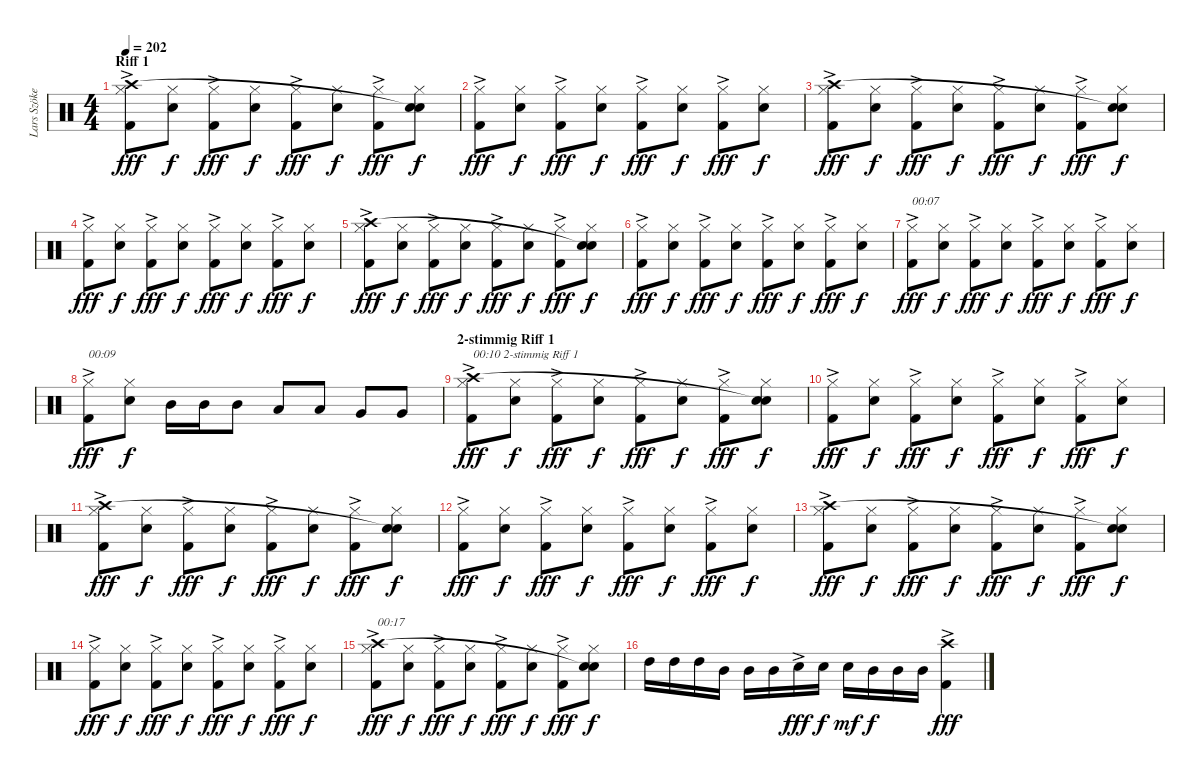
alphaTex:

\track ("Lars Szöke" "Lars Szöke") {instrument percussion}
\staff {score}
\articulation defaults
\ts (4 4)
\section ("" "Riff 1")
\tempo 202
\clef neutral
\ks c
("Kick (hit) 2"{ac} "Hi-Hat (closed)" "Crash high (hit)"{ac}).8{dy fff} ("Snare (hit) 2" "Hi-Hat (closed)").8{dy f} ("Kick (hit) 2"{ac} "Hi-Hat (closed)").8{dy fff} ("Snare (hit) 2" "Hi-Hat (closed)").8{dy f} ("Kick (hit) 2"{ac} "Hi-Hat (closed)").8{dy fff} ("Snare (hit) 2" "Hi-Hat (closed)").8{dy f} ("Kick (hit) 2"{ac} "Hi-Hat (closed)").8{dy fff} ("Snare (hit) 2" "Hi-Hat (closed)" "Snare (hit)"{t}).8{dy f} |
("Kick (hit) 2"{ac} "Hi-Hat (closed)").8{dy fff} ("Snare (hit) 2" "Hi-Hat (closed)").8{dy f} ("Kick (hit) 2"{ac} "Hi-Hat (closed)").8{dy fff} ("Snare (hit) 2" "Hi-Hat (closed)").8{dy f} ("Kick (hit) 2"{ac} "Hi-Hat (closed)").8{dy fff} ("Snare (hit) 2" "Hi-Hat (closed)").8{dy f} ("Kick (hit) 2"{ac} "Hi-Hat (closed)").8{dy fff} ("Snare (hit) 2" "Hi-Hat (closed)").8{dy f} |
("Kick (hit) 2"{ac} "Hi-Hat (closed)" "Crash high (hit)"{ac}).8{dy fff} ("Snare (hit) 2" "Hi-Hat (closed)").8{dy f} ("Kick (hit) 2"{ac} "Hi-Hat (closed)").8{dy fff} ("Snare (hit) 2" "Hi-Hat (closed)").8{dy f} ("Kick (hit) 2"{ac} "Hi-Hat (closed)").8{dy fff} ("Snare (hit) 2" "Hi-Hat (closed)").8{dy f} ("Kick (hit) 2"{ac} "Hi-Hat (closed)").8{dy fff} ("Snare (hit) 2" "Hi-Hat (closed)" "Snare (hit)"{t}).8{dy f} |
("Kick (hit) 2"{ac} "Hi-Hat (closed)").8{dy fff} ("Snare (hit) 2" "Hi-Hat (closed)").8{dy f} ("Kick (hit) 2"{ac} "Hi-Hat (closed)").8{dy fff} ("Snare (hit) 2" "Hi-Hat (closed)").8{dy f} ("Kick (hit) 2"{ac} "Hi-Hat (closed)").8{dy fff} ("Snare (hit) 2" "Hi-Hat (closed)").8{dy f} ("Kick (hit) 2"{ac} "Hi-Hat (closed)").8{dy fff} ("Snare (hit) 2" "Hi-Hat (closed)").8{dy f} |
("Kick (hit) 2"{ac} "Hi-Hat (closed)" "Crash high (hit)"{ac}).8{dy fff} ("Snare (hit) 2" "Hi-Hat (closed)").8{dy f} ("Kick (hit) 2"{ac} "Hi-Hat (closed)").8{dy fff} ("Snare (hit) 2" "Hi-Hat (closed)").8{dy f} ("Kick (hit) 2"{ac} "Hi-Hat (closed)").8{dy fff} ("Snare (hit) 2" "Hi-Hat (closed)").8{dy f} ("Kick (hit) 2"{ac} "Hi-Hat (closed)").8{dy fff} ("Snare (hit) 2" "Hi-Hat (closed)" "Snare (hit)"{t}).8{dy f} |
("Kick (hit) 2"{ac} "Hi-Hat (closed)").8{dy fff} ("Snare (hit) 2" "Hi-Hat (closed)").8{dy f} ("Kick (hit) 2"{ac} "Hi-Hat (closed)").8{dy fff} ("Snare (hit) 2" "Hi-Hat (closed)").8{dy f} ("Kick (hit) 2"{ac} "Hi-Hat (closed)").8{dy fff} ("Snare (hit) 2" "Hi-Hat (closed)").8{dy f} ("Kick (hit) 2"{ac} "Hi-Hat (closed)").8{dy fff} ("Snare (hit) 2" "Hi-Hat (closed)").8{dy f} |
("Kick (hit) 2"{ac} "Hi-Hat (closed)").8{txt "00:07" dy fff} ("Snare (hit) 2" "Hi-Hat (closed)").8{dy f} ("Kick (hit) 2"{ac} "Hi-Hat (closed)").8{dy fff} ("Snare (hit) 2" "Hi-Hat (closed)").8{dy f} ("Kick (hit) 2"{ac} "Hi-Hat (closed)").8{dy fff} ("Snare (hit) 2" "Hi-Hat (closed)").8{dy f} ("Kick (hit) 2"{ac} "Hi-Hat (closed)").8{dy fff} ("Snare (hit) 2" "Hi-Hat (closed)").8{dy f} |
("Kick (hit) 2"{ac} "Hi-Hat (closed)").8{txt "00:09" dy fff} ("Snare (hit) 2" "Hi-Hat (closed)").8{dy f} "Mid Tom (hit)".16 "Mid Tom (hit)".16 "Mid Tom (hit)".8 "Low Tom (hit)".8 "Low Tom (hit)".8 "Very Low Tom (hit)".8 "Very Low Tom (hit)".8 |
\section ("" "2-stimmig Riff 1")
("Kick (hit) 2"{ac} "Hi-Hat (closed)" "Crash high (hit)"{ac}).8{txt "00:10 2-stimmig Riff 1" dy fff} ("Snare (hit) 2" "Hi-Hat (closed)").8{dy f} ("Kick (hit) 2"{ac} "Hi-Hat (closed)").8{dy fff} ("Snare (hit) 2" "Hi-Hat (closed)").8{dy f} ("Kick (hit) 2"{ac} "Hi-Hat (closed)").8{dy fff} ("Snare (hit) 2" "Hi-Hat (closed)").8{dy f} ("Kick (hit) 2"{ac} "Hi-Hat (closed)").8{dy fff} ("Snare (hit) 2" "Hi-Hat (closed)" "Snare (hit)"{t}).8{dy f} |
("Kick (hit) 2"{ac} "Hi-Hat (closed)").8{dy fff} ("Snare (hit) 2" "Hi-Hat (closed)").8{dy f} ("Kick (hit) 2"{ac} "Hi-Hat (closed)").8{dy fff} ("Snare (hit) 2" "Hi-Hat (closed)").8{dy f} ("Kick (hit) 2"{ac} "Hi-Hat (closed)").8{dy fff} ("Snare (hit) 2" "Hi-Hat (closed)").8{dy f} ("Kick (hit) 2"{ac} "Hi-Hat (closed)").8{dy fff} ("Snare (hit) 2" "Hi-Hat (closed)").8{dy f} |
("Kick (hit) 2"{ac} "Hi-Hat (closed)" "Crash high (hit)"{ac}).8{dy fff} ("Snare (hit) 2" "Hi-Hat (closed)").8{dy f} ("Kick (hit) 2"{ac} "Hi-Hat (closed)").8{dy fff} ("Snare (hit) 2" "Hi-Hat (closed)").8{dy f} ("Kick (hit) 2"{ac} "Hi-Hat (closed)").8{dy fff} ("Snare (hit) 2" "Hi-Hat (closed)").8{dy f} ("Kick (hit) 2"{ac} "Hi-Hat (closed)").8{dy fff} ("Snare (hit) 2" "Hi-Hat (closed)" "Snare (hit)"{t}).8{dy f} |
("Kick (hit) 2"{ac} "Hi-Hat (closed)").8{dy fff} ("Snare (hit) 2" "Hi-Hat (closed)").8{dy f} ("Kick (hit) 2"{ac} "Hi-Hat (closed)").8{dy fff} ("Snare (hit) 2" "Hi-Hat (closed)").8{dy f} ("Kick (hit) 2"{ac} "Hi-Hat (closed)").8{dy fff} ("Snare (hit) 2" "Hi-Hat (closed)").8{dy f} ("Kick (hit) 2"{ac} "Hi-Hat (closed)").8{dy fff} ("Snare (hit) 2" "Hi-Hat (closed)").8{dy f} |
("Kick (hit) 2"{ac} "Hi-Hat (closed)" "Crash high (hit)"{ac}).8{dy fff} ("Snare (hit) 2" "Hi-Hat (closed)").8{dy f} ("Kick (hit) 2"{ac} "Hi-Hat (closed)").8{dy fff} ("Snare (hit) 2" "Hi-Hat (closed)").8{dy f} ("Kick (hit) 2"{ac} "Hi-Hat (closed)").8{dy fff} ("Snare (hit) 2" "Hi-Hat (closed)").8{dy f} ("Kick (hit) 2"{ac} "Hi-Hat (closed)").8{dy fff} ("Snare (hit) 2" "Hi-Hat (closed)" "Snare (hit)"{t}).8{dy f} |
("Kick (hit) 2"{ac} "Hi-Hat (closed)").8{dy fff} ("Snare (hit) 2" "Hi-Hat (closed)").8{dy f} ("Kick (hit) 2"{ac} "Hi-Hat (closed)").8{dy fff} ("Snare (hit) 2" "Hi-Hat (closed)").8{dy f} ("Kick (hit) 2"{ac} "Hi-Hat (closed)").8{dy fff} ("Snare (hit) 2" "Hi-Hat (closed)").8{dy f} ("Kick (hit) 2"{ac} "Hi-Hat (closed)").8{dy fff} ("Snare (hit) 2" "Hi-Hat (closed)").8{dy f} |
("Kick (hit) 2"{ac} "Hi-Hat (closed)" "Crash high (hit)"{ac}).8{txt "00:17" dy fff} ("Snare (hit) 2" "Hi-Hat (closed)").8{dy f} ("Kick (hit) 2"{ac} "Hi-Hat (closed)").8{dy fff} ("Snare (hit) 2" "Hi-Hat (closed)").8{dy f} ("Kick (hit) 2"{ac} "Hi-Hat (closed)").8{dy fff} ("Snare (hit) 2" "Hi-Hat (closed)").8{dy f} ("Kick (hit) 2"{ac} "Hi-Hat (closed)").8{dy fff} ("Snare (hit) 2" "Hi-Hat (closed)" "Snare (hit)"{t}).8{dy f} |
"High Tom (hit)".16 "High Tom (hit)".16 "High Tom (hit)".16 "Mid Tom (hit)".16 "Mid Tom (hit)".16 "Mid Tom (hit)".16 "Snare (hit) 2"{ac}.16{dy fff} "Snare (hit) 2".16{dy f} "Snare (hit) 2".16{dy mf} "Mid Tom (hit)".16{dy f} "Mid Tom (hit)".16 "Mid Tom (hit)".16 ("Kick (hit) 2"{ac} "Crash high (hit)"{ac}).4{dy fff}
